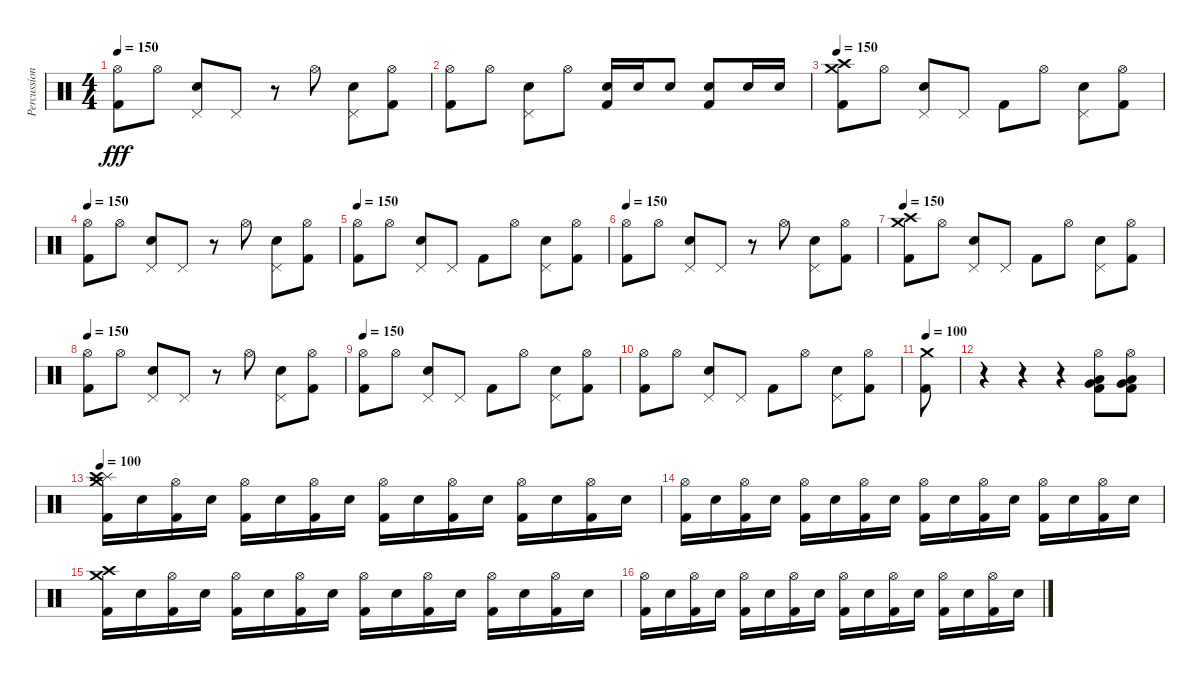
\track ("Percussion" "Percussion") {instrument percussion}
\staff
\articulation defaults
\ts (4 4)
\tempo 150
\clef neutral
\ks c
("Hi-Hat (open)" "Kick (hit) 2").8{dy fff} "Hi-Hat (open)".8 ("Pedal Hi-Hat (hit)" "Snare (hit) 2").8 "Pedal Hi-Hat (hit)".8 r.8 "Hi-Hat (open)".8 ("Pedal Hi-Hat (hit)" "Snare (hit) 2").8 ("Hi-Hat (open)" "Kick (hit) 2").8 |
("Hi-Hat (open)" "Kick (hit) 2").8 "Hi-Hat (open)".8 ("Pedal Hi-Hat (hit)" "Snare (hit) 2").8 "Hi-Hat (open)".8 ("Snare (hit) 2" "Kick (hit) 2").16 "Snare (hit) 2".16 "Snare (hit) 2".8 ("Snare (hit) 2" "Kick (hit) 2").8 "Snare (hit) 2".16 "Snare (hit) 2".16 |
\tempo 150
("Crash high (hit)" "Crash medium (hit)" "Kick (hit) 2").8 "Hi-Hat (open)".8 ("Pedal Hi-Hat (hit)" "Snare (hit) 2").8 "Pedal Hi-Hat (hit)".8 "Kick (hit) 2".8 "Hi-Hat (open)".8 ("Pedal Hi-Hat (hit)" "Snare (hit) 2").8 ("Hi-Hat (open)" "Kick (hit) 2").8 |
\tempo 150
("Hi-Hat (open)" "Kick (hit) 2").8 "Hi-Hat (open)".8 ("Pedal Hi-Hat (hit)" "Snare (hit) 2").8 "Pedal Hi-Hat (hit)".8 r.8 "Hi-Hat (open)".8 ("Pedal Hi-Hat (hit)" "Snare (hit) 2").8 ("Hi-Hat (open)" "Kick (hit) 2").8 |
\tempo 150
("Hi-Hat (open)" "Kick (hit) 2").8 "Hi-Hat (open)".8 ("Pedal Hi-Hat (hit)" "Snare (hit) 2").8 "Pedal Hi-Hat (hit)".8 "Kick (hit) 2".8 "Hi-Hat (open)".8 ("Pedal Hi-Hat (hit)" "Snare (hit) 2").8 ("Hi-Hat (open)" "Kick (hit) 2").8 |
\tempo 150
("Hi-Hat (open)" "Kick (hit) 2").8 "Hi-Hat (open)".8 ("Pedal Hi-Hat (hit)" "Snare (hit) 2").8 "Pedal Hi-Hat (hit)".8 r.8 "Hi-Hat (open)".8 ("Pedal Hi-Hat (hit)" "Snare (hit) 2").8 ("Hi-Hat (open)" "Kick (hit) 2").8 |
\tempo 150
("Crash high (hit)" "Crash medium (hit)" "Kick (hit) 2").8 "Hi-Hat (open)".8 ("Pedal Hi-Hat (hit)" "Snare (hit) 2").8 "Pedal Hi-Hat (hit)".8 "Kick (hit) 2".8 "Hi-Hat (open)".8 ("Pedal Hi-Hat (hit)" "Snare (hit) 2").8 ("Hi-Hat (open)" "Kick (hit) 2").8 |
\tempo 150
("Hi-Hat (open)" "Kick (hit) 2").8 "Hi-Hat (open)".8 ("Pedal Hi-Hat (hit)" "Snare (hit) 2").8 "Pedal Hi-Hat (hit)".8 r.8 "Hi-Hat (open)".8 ("Pedal Hi-Hat (hit)" "Snare (hit) 2").8 ("Hi-Hat (open)" "Kick (hit) 2").8 |
\tempo 150
("Hi-Hat (open)" "Kick (hit) 2").8 "Hi-Hat (open)".8 ("Pedal Hi-Hat (hit)" "Snare (hit) 2").8 "Pedal Hi-Hat (hit)".8 "Kick (hit) 2".8 "Hi-Hat (open)".8 ("Pedal Hi-Hat (hit)" "Snare (hit) 2").8 ("Hi-Hat (open)" "Kick (hit) 2").8 |
("Hi-Hat (open)" "Kick (hit) 2").8 "Hi-Hat (open)".8 ("Pedal Hi-Hat (hit)" "Snare (hit) 2").8 "Pedal Hi-Hat (hit)".8 "Kick (hit) 2".8 "Hi-Hat (open)".8 ("Pedal Hi-Hat (hit)" "Snare (hit) 2").8 ("Hi-Hat (open)" "Kick (hit) 2").8 |
\tempo 100
("Crash medium (hit)" "Kick (hit) 2").8 |
r.4 r.4 r.4 ("Hi-Hat (open)" "Very Low Tom (hit)" "Low Floor Tom (hit)" "Kick (hit) 2").8 ("Hi-Hat (open)" "Very Low Tom (hit)" "Low Floor Tom (hit)" "Kick (hit) 2").8 |
\tempo 100
("Splash (hit)" "Crash high (hit)" "Crash medium (hit)" "Kick (hit) 2").16 "Snare (hit) 2".16 ("Hi-Hat (open)" "Kick (hit) 2").16 "Snare (hit) 2".16 ("Hi-Hat (open)" "Kick (hit) 2").16 "Snare (hit) 2".16 ("Hi-Hat (open)" "Kick (hit) 2").16 "Snare (hit) 2".16 ("Hi-Hat (open)" "Kick (hit) 2").16 "Snare (hit) 2".16 ("Hi-Hat (open)" "Kick (hit) 2").16 "Snare (hit) 2".16 ("Hi-Hat (open)" "Kick (hit) 2").16 "Snare (hit) 2".16 ("Hi-Hat (open)" "Kick (hit) 2").16 "Snare (hit) 2".16 |
("Hi-Hat (open)" "Kick (hit) 2").16 "Snare (hit) 2".16 ("Hi-Hat (open)" "Kick (hit) 2").16 "Snare (hit) 2".16 ("Hi-Hat (open)" "Kick (hit) 2").16 "Snare (hit) 2".16 ("Hi-Hat (open)" "Kick (hit) 2").16 "Snare (hit) 2".16 ("Hi-Hat (open)" "Kick (hit) 2").16 "Snare (hit) 2".16 ("Hi-Hat (open)" "Kick (hit) 2").16 "Snare (hit) 2".16 ("Hi-Hat (open)" "Kick (hit) 2").16 "Snare (hit) 2".16 ("Hi-Hat (open)" "Kick (hit) 2").16 "Snare (hit) 2".16 |
("Crash high (hit)" "Crash medium (hit)" "Kick (hit) 2").16 "Snare (hit) 2".16 ("Hi-Hat (open)" "Kick (hit) 2").16 "Snare (hit) 2".16 ("Hi-Hat (open)" "Kick (hit) 2").16 "Snare (hit) 2".16 ("Hi-Hat (open)" "Kick (hit) 2").16 "Snare (hit) 2".16 ("Hi-Hat (open)" "Kick (hit) 2").16 "Snare (hit) 2".16 ("Hi-Hat (open)" "Kick (hit) 2").16 "Snare (hit) 2".16 ("Hi-Hat (open)" "Kick (hit) 2").16 "Snare (hit) 2".16 ("Hi-Hat (open)" "Kick (hit) 2").16 "Snare (hit) 2".16 |
("Hi-Hat (open)" "Kick (hit) 2").16 "Snare (hit) 2".16 ("Hi-Hat (open)" "Kick (hit) 2").16 "Snare (hit) 2".16 ("Hi-Hat (open)" "Kick (hit) 2").16 "Snare (hit) 2".16 ("Hi-Hat (open)" "Kick (hit) 2").16 "Snare (hit) 2".16 ("Hi-Hat (open)" "Kick (hit) 2").16 "Snare (hit) 2".16 ("Hi-Hat (open)" "Kick (hit) 2").16 "Snare (hit) 2".16 ("Hi-Hat (open)" "Kick (hit) 2").16 "Snare (hit) 2".16 ("Hi-Hat (open)" "Kick (hit) 2").16 "Snare (hit) 2".16
